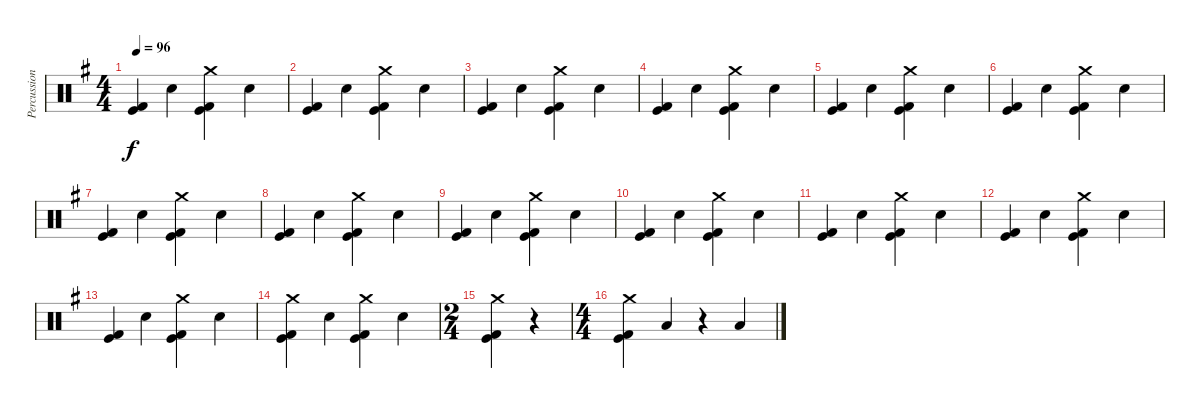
\track ("Percussion" "Percussion") {instrument percussion}
\staff {score}
\articulation defaults
\ts (4 4)
\tempo 96
\clef neutral
\ks g
("Kick (hit) 2" "Kick (hit)").4{dy f} "Electric Snare (hit)".4 ("Crash medium (hit)" "Kick (hit) 2" "Kick (hit)").4 "Electric Snare (hit)".4 |
("Kick (hit) 2" "Kick (hit)").4 "Electric Snare (hit)".4 ("Crash medium (hit)" "Kick (hit) 2" "Kick (hit)").4 "Electric Snare (hit)".4 |
("Kick (hit) 2" "Kick (hit)").4 "Electric Snare (hit)".4 ("Crash medium (hit)" "Kick (hit) 2" "Kick (hit)").4 "Electric Snare (hit)".4 |
("Kick (hit) 2" "Kick (hit)").4 "Electric Snare (hit)".4 ("Crash medium (hit)" "Kick (hit) 2" "Kick (hit)").4 "Electric Snare (hit)".4 |
("Kick (hit) 2" "Kick (hit)").4 "Electric Snare (hit)".4 ("Crash medium (hit)" "Kick (hit) 2" "Kick (hit)").4 "Electric Snare (hit)".4 |
("Kick (hit) 2" "Kick (hit)").4 "Electric Snare (hit)".4 ("Crash medium (hit)" "Kick (hit) 2" "Kick (hit)").4 "Electric Snare (hit)".4 |
("Kick (hit) 2" "Kick (hit)").4 "Electric Snare (hit)".4 ("Crash medium (hit)" "Kick (hit) 2" "Kick (hit)").4 "Electric Snare (hit)".4 |
("Kick (hit) 2" "Kick (hit)").4 "Electric Snare (hit)".4 ("Crash medium (hit)" "Kick (hit) 2" "Kick (hit)").4 "Electric Snare (hit)".4 |
("Kick (hit) 2" "Kick (hit)").4 "Electric Snare (hit)".4 ("Crash medium (hit)" "Kick (hit) 2" "Kick (hit)").4 "Electric Snare (hit)".4 |
("Kick (hit) 2" "Kick (hit)").4 "Electric Snare (hit)".4 ("Crash medium (hit)" "Kick (hit) 2" "Kick (hit)").4 "Electric Snare (hit)".4 |
("Kick (hit) 2" "Kick (hit)").4 "Electric Snare (hit)".4 ("Crash medium (hit)" "Kick (hit) 2" "Kick (hit)").4 "Electric Snare (hit)".4 |
("Kick (hit) 2" "Kick (hit)").4 "Electric Snare (hit)".4 ("Crash medium (hit)" "Kick (hit) 2" "Kick (hit)").4 "Electric Snare (hit)".4 |
("Kick (hit) 2" "Kick (hit)").4 "Electric Snare (hit)".4 ("Crash medium (hit)" "Kick (hit) 2" "Kick (hit)").4 "Electric Snare (hit)".4 |
("Crash medium (hit)" "Kick (hit) 2" "Kick (hit)").4 "Electric Snare (hit)".4 ("Crash medium (hit)" "Kick (hit) 2" "Kick (hit)").4 "Electric Snare (hit)".4 |
\ts (2 4)
("Crash medium (hit)" "Kick (hit) 2" "Kick (hit)").4 r.4 |
\ts (4 4)
("Crash medium (hit)" "Kick (hit) 2" "Kick (hit)").4 "Low Floor Tom (hit)".4 r.4 "Low Floor Tom (hit)".4
